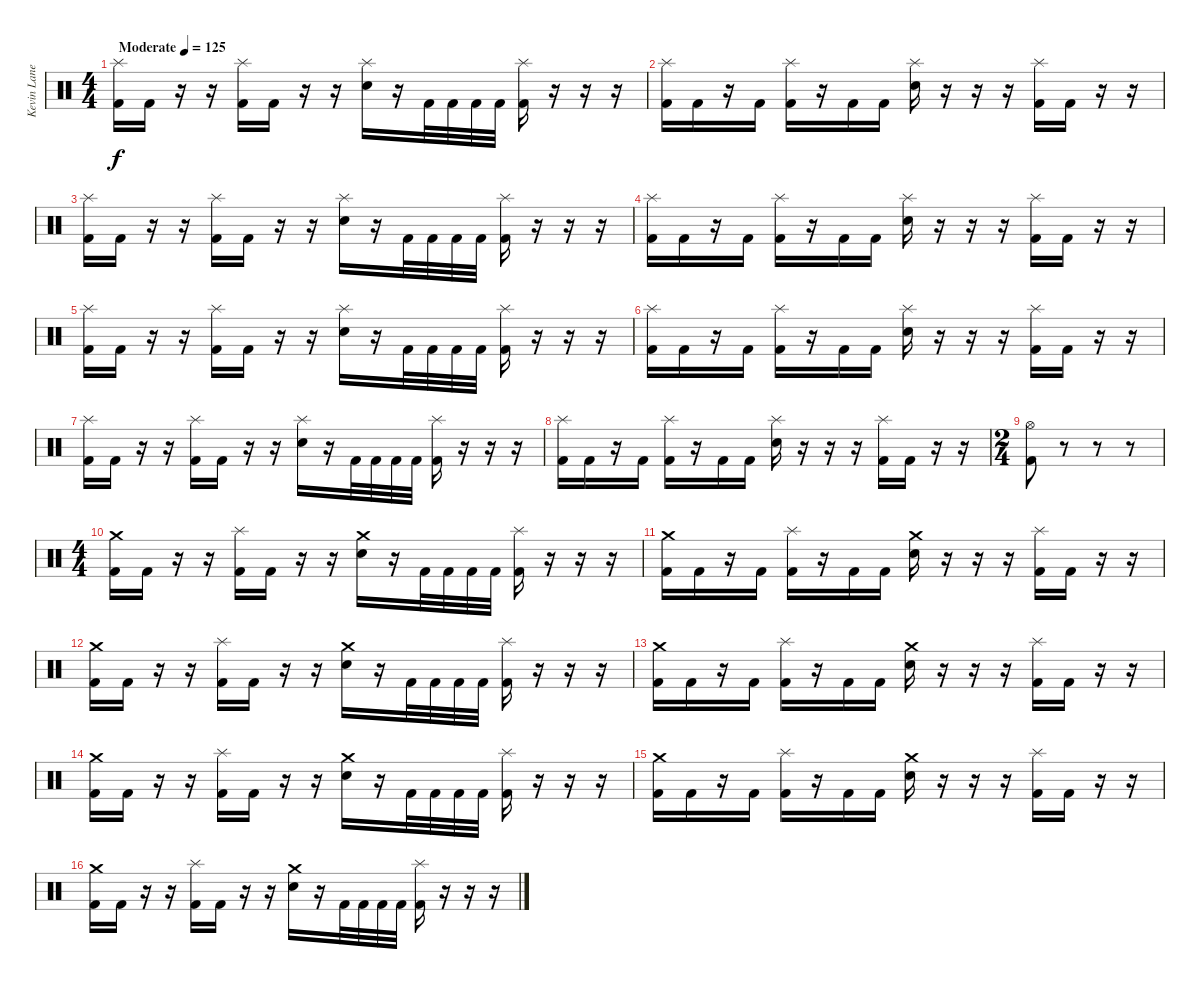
\track ("Kevin Lane" "Kevin Lane") {instrument percussion}
\staff {score}
\articulation defaults
\ts (4 4)
\tempo (125 "Moderate")
\clef neutral
\ks c
("Splash (hit)" "Kick (hit) 2").16{dy f} "Kick (hit) 2".16 r.16 r.16 ("Splash (hit)" "Kick (hit) 2").16 "Kick (hit) 2".16 r.16 r.16 ("Splash (hit)" "Electric Snare (hit)").16 r.16 "Kick (hit) 2".32 "Kick (hit) 2".32 "Kick (hit) 2".32 "Kick (hit) 2".32 ("Splash (hit)" "Kick (hit) 2").16 r.16 r.16 r.16 |
("Splash (hit)" "Kick (hit) 2").16 "Kick (hit) 2".16 r.16 "Kick (hit) 2".16 ("Splash (hit)" "Kick (hit) 2").16 r.16 "Kick (hit) 2".16 "Kick (hit) 2".16 ("Splash (hit)" "Electric Snare (hit)").16 r.16 r.16 r.16 ("Splash (hit)" "Kick (hit) 2").16 "Kick (hit) 2".16 r.16 r.16 |
("Splash (hit)" "Kick (hit) 2").16 "Kick (hit) 2".16 r.16 r.16 ("Splash (hit)" "Kick (hit) 2").16 "Kick (hit) 2".16 r.16 r.16 ("Splash (hit)" "Electric Snare (hit)").16 r.16 "Kick (hit) 2".32 "Kick (hit) 2".32 "Kick (hit) 2".32 "Kick (hit) 2".32 ("Splash (hit)" "Kick (hit) 2").16 r.16 r.16 r.16 |
("Splash (hit)" "Kick (hit) 2").16 "Kick (hit) 2".16 r.16 "Kick (hit) 2".16 ("Splash (hit)" "Kick (hit) 2").16 r.16 "Kick (hit) 2".16 "Kick (hit) 2".16 ("Splash (hit)" "Electric Snare (hit)").16 r.16 r.16 r.16 ("Splash (hit)" "Kick (hit) 2").16 "Kick (hit) 2".16 r.16 r.16 |
("Splash (hit)" "Kick (hit) 2").16 "Kick (hit) 2".16 r.16 r.16 ("Splash (hit)" "Kick (hit) 2").16 "Kick (hit) 2".16 r.16 r.16 ("Splash (hit)" "Electric Snare (hit)").16 r.16 "Kick (hit) 2".32 "Kick (hit) 2".32 "Kick (hit) 2".32 "Kick (hit) 2".32 ("Splash (hit)" "Kick (hit) 2").16 r.16 r.16 r.16 |
("Splash (hit)" "Kick (hit) 2").16 "Kick (hit) 2".16 r.16 "Kick (hit) 2".16 ("Splash (hit)" "Kick (hit) 2").16 r.16 "Kick (hit) 2".16 "Kick (hit) 2".16 ("Splash (hit)" "Electric Snare (hit)").16 r.16 r.16 r.16 ("Splash (hit)" "Kick (hit) 2").16 "Kick (hit) 2".16 r.16 r.16 |
("Splash (hit)" "Kick (hit) 2").16 "Kick (hit) 2".16 r.16 r.16 ("Splash (hit)" "Kick (hit) 2").16 "Kick (hit) 2".16 r.16 r.16 ("Splash (hit)" "Electric Snare (hit)").16 r.16 "Kick (hit) 2".32 "Kick (hit) 2".32 "Kick (hit) 2".32 "Kick (hit) 2".32 ("Splash (hit)" "Kick (hit) 2").16 r.16 r.16 r.16 |
("Splash (hit)" "Kick (hit) 2").16 "Kick (hit) 2".16 r.16 "Kick (hit) 2".16 ("Splash (hit)" "Kick (hit) 2").16 r.16 "Kick (hit) 2".16 "Kick (hit) 2".16 ("Splash (hit)" "Electric Snare (hit)").16 r.16 r.16 r.16 ("Splash (hit)" "Kick (hit) 2").16 "Kick (hit) 2".16 r.16 r.16 |
\ts (2 4)
("Hi-Hat (open)" "Kick (hit) 2").8 r.8 r.8 r.8 |
\ts (4 4)
("Crash medium (hit)" "Kick (hit) 2").16 "Kick (hit) 2".16 r.16 r.16 ("Splash (hit)" "Kick (hit) 2").16 "Kick (hit) 2".16 r.16 r.16 ("Crash medium (hit)" "Electric Snare (hit)").16 r.16 "Kick (hit) 2".32 "Kick (hit) 2".32 "Kick (hit) 2".32 "Kick (hit) 2".32 ("Splash (hit)" "Kick (hit) 2").16 r.16 r.16 r.16 |
("Crash medium (hit)" "Kick (hit) 2").16 "Kick (hit) 2".16 r.16 "Kick (hit) 2".16 ("Splash (hit)" "Kick (hit) 2").16 r.16 "Kick (hit) 2".16 "Kick (hit) 2".16 ("Crash medium (hit)" "Electric Snare (hit)").16 r.16 r.16 r.16 ("Splash (hit)" "Kick (hit) 2").16 "Kick (hit) 2".16 r.16 r.16 |
("Crash medium (hit)" "Kick (hit) 2").16 "Kick (hit) 2".16 r.16 r.16 ("Splash (hit)" "Kick (hit) 2").16 "Kick (hit) 2".16 r.16 r.16 ("Crash medium (hit)" "Electric Snare (hit)").16 r.16 "Kick (hit) 2".32 "Kick (hit) 2".32 "Kick (hit) 2".32 "Kick (hit) 2".32 ("Splash (hit)" "Kick (hit) 2").16 r.16 r.16 r.16 |
("Crash medium (hit)" "Kick (hit) 2").16 "Kick (hit) 2".16 r.16 "Kick (hit) 2".16 ("Splash (hit)" "Kick (hit) 2").16 r.16 "Kick (hit) 2".16 "Kick (hit) 2".16 ("Crash medium (hit)" "Electric Snare (hit)").16 r.16 r.16 r.16 ("Splash (hit)" "Kick (hit) 2").16 "Kick (hit) 2".16 r.16 r.16 |
("Crash medium (hit)" "Kick (hit) 2").16 "Kick (hit) 2".16 r.16 r.16 ("Splash (hit)" "Kick (hit) 2").16 "Kick (hit) 2".16 r.16 r.16 ("Crash medium (hit)" "Electric Snare (hit)").16 r.16 "Kick (hit) 2".32 "Kick (hit) 2".32 "Kick (hit) 2".32 "Kick (hit) 2".32 ("Splash (hit)" "Kick (hit) 2").16 r.16 r.16 r.16 |
("Crash medium (hit)" "Kick (hit) 2").16 "Kick (hit) 2".16 r.16 "Kick (hit) 2".16 ("Splash (hit)" "Kick (hit) 2").16 r.16 "Kick (hit) 2".16 "Kick (hit) 2".16 ("Crash medium (hit)" "Electric Snare (hit)").16 r.16 r.16 r.16 ("Splash (hit)" "Kick (hit) 2").16 "Kick (hit) 2".16 r.16 r.16 |
("Crash medium (hit)" "Kick (hit) 2").16 "Kick (hit) 2".16 r.16 r.16 ("Splash (hit)" "Kick (hit) 2").16 "Kick (hit) 2".16 r.16 r.16 ("Crash medium (hit)" "Electric Snare (hit)").16 r.16 "Kick (hit) 2".32 "Kick (hit) 2".32 "Kick (hit) 2".32 "Kick (hit) 2".32 ("Splash (hit)" "Kick (hit) 2").16 r.16 r.16 r.16
